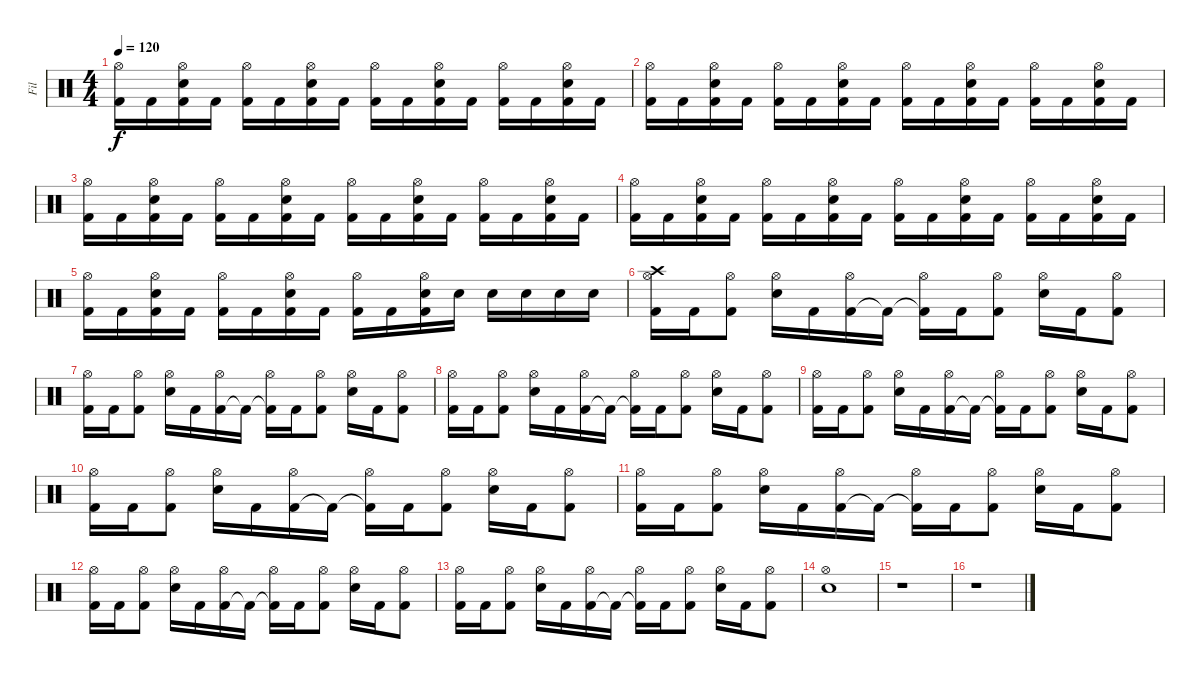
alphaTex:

\track ("Fil" "Fil") {instrument percussion}
\staff {score}
\articulation defaults
\ts (4 4)
\tempo 120
\clef neutral
\ks c
("Kick (hit) 2" "Hi-Hat (open)").16{dy f} "Kick (hit) 2".16 ("Kick (hit) 2" "Snare (hit) 2" "Hi-Hat (open)").16 "Kick (hit) 2".16 ("Kick (hit) 2" "Hi-Hat (open)").16 "Kick (hit) 2".16 ("Kick (hit) 2" "Snare (hit) 2" "Hi-Hat (open)").16 "Kick (hit) 2".16 ("Kick (hit) 2" "Hi-Hat (open)").16 "Kick (hit) 2".16 ("Kick (hit) 2" "Snare (hit) 2" "Hi-Hat (open)").16 "Kick (hit) 2".16 ("Kick (hit) 2" "Hi-Hat (open)").16 "Kick (hit) 2".16 ("Kick (hit) 2" "Snare (hit) 2" "Hi-Hat (open)").16 "Kick (hit) 2".16 |
("Kick (hit) 2" "Hi-Hat (open)").16 "Kick (hit) 2".16 ("Kick (hit) 2" "Snare (hit) 2" "Hi-Hat (open)").16 "Kick (hit) 2".16 ("Kick (hit) 2" "Hi-Hat (open)").16 "Kick (hit) 2".16 ("Kick (hit) 2" "Snare (hit) 2" "Hi-Hat (open)").16 "Kick (hit) 2".16 ("Kick (hit) 2" "Hi-Hat (open)").16 "Kick (hit) 2".16 ("Kick (hit) 2" "Snare (hit) 2" "Hi-Hat (open)").16 "Kick (hit) 2".16 ("Kick (hit) 2" "Hi-Hat (open)").16 "Kick (hit) 2".16 ("Kick (hit) 2" "Snare (hit) 2" "Hi-Hat (open)").16 "Kick (hit) 2".16 |
("Kick (hit) 2" "Hi-Hat (open)").16 "Kick (hit) 2".16 ("Kick (hit) 2" "Snare (hit) 2" "Hi-Hat (open)").16 "Kick (hit) 2".16 ("Kick (hit) 2" "Hi-Hat (open)").16 "Kick (hit) 2".16 ("Kick (hit) 2" "Snare (hit) 2" "Hi-Hat (open)").16 "Kick (hit) 2".16 ("Kick (hit) 2" "Hi-Hat (open)").16 "Kick (hit) 2".16 ("Kick (hit) 2" "Snare (hit) 2" "Hi-Hat (open)").16 "Kick (hit) 2".16 ("Kick (hit) 2" "Hi-Hat (open)").16 "Kick (hit) 2".16 ("Kick (hit) 2" "Snare (hit) 2" "Hi-Hat (open)").16 "Kick (hit) 2".16 |
("Kick (hit) 2" "Hi-Hat (open)").16 "Kick (hit) 2".16 ("Kick (hit) 2" "Snare (hit) 2" "Hi-Hat (open)").16 "Kick (hit) 2".16 ("Kick (hit) 2" "Hi-Hat (open)").16 "Kick (hit) 2".16 ("Kick (hit) 2" "Snare (hit) 2" "Hi-Hat (open)").16 "Kick (hit) 2".16 ("Kick (hit) 2" "Hi-Hat (open)").16 "Kick (hit) 2".16 ("Kick (hit) 2" "Snare (hit) 2" "Hi-Hat (open)").16 "Kick (hit) 2".16 ("Kick (hit) 2" "Hi-Hat (open)").16 "Kick (hit) 2".16 ("Kick (hit) 2" "Snare (hit) 2" "Hi-Hat (open)").16 "Kick (hit) 2".16 |
("Kick (hit) 2" "Hi-Hat (open)").16 "Kick (hit) 2".16 ("Kick (hit) 2" "Snare (hit) 2" "Hi-Hat (open)").16 "Kick (hit) 2".16 ("Kick (hit) 2" "Hi-Hat (open)").16 "Kick (hit) 2".16 ("Kick (hit) 2" "Snare (hit) 2" "Hi-Hat (open)").16 "Kick (hit) 2".16 ("Kick (hit) 2" "Hi-Hat (open)").16 "Kick (hit) 2".16 ("Kick (hit) 2" "Snare (hit) 2" "Hi-Hat (open)").16 "Snare (hit) 2".16 "Snare (hit) 2".16 "Snare (hit) 2".16 "Snare (hit) 2".16 "Snare (hit) 2".16 |
("Kick (hit) 2" "Hi-Hat (open)" "Crash high (hit)").16 "Kick (hit) 2".16 ("Kick (hit) 2" "Hi-Hat (open)").8 ("Snare (hit) 2" "Hi-Hat (open)").16 "Kick (hit) 2".16 ("Kick (hit) 2" "Hi-Hat (open)").16 "Kick (hit) 2"{t}.16 ("Kick (hit) 2"{t} "Hi-Hat (open)").16 "Kick (hit) 2".16 ("Kick (hit) 2" "Hi-Hat (open)").8 ("Snare (hit) 2" "Hi-Hat (open)").16 "Kick (hit) 2".16 ("Kick (hit) 2" "Hi-Hat (open)").8 |
("Kick (hit) 2" "Hi-Hat (open)").16 "Kick (hit) 2".16 ("Kick (hit) 2" "Hi-Hat (open)").8 ("Snare (hit) 2" "Hi-Hat (open)").16 "Kick (hit) 2".16 ("Kick (hit) 2" "Hi-Hat (open)").16 "Kick (hit) 2"{t}.16 ("Kick (hit) 2"{t} "Hi-Hat (open)").16 "Kick (hit) 2".16 ("Kick (hit) 2" "Hi-Hat (open)").8 ("Snare (hit) 2" "Hi-Hat (open)").16 "Kick (hit) 2".16 ("Kick (hit) 2" "Hi-Hat (open)").8 |
("Kick (hit) 2" "Hi-Hat (open)").16 "Kick (hit) 2".16 ("Kick (hit) 2" "Hi-Hat (open)").8 ("Snare (hit) 2" "Hi-Hat (open)").16 "Kick (hit) 2".16 ("Kick (hit) 2" "Hi-Hat (open)").16 "Kick (hit) 2"{t}.16 ("Kick (hit) 2"{t} "Hi-Hat (open)").16 "Kick (hit) 2".16 ("Kick (hit) 2" "Hi-Hat (open)").8 ("Snare (hit) 2" "Hi-Hat (open)").16 "Kick (hit) 2".16 ("Kick (hit) 2" "Hi-Hat (open)").8 |
("Kick (hit) 2" "Hi-Hat (open)").16 "Kick (hit) 2".16 ("Kick (hit) 2" "Hi-Hat (open)").8 ("Snare (hit) 2" "Hi-Hat (open)").16 "Kick (hit) 2".16 ("Kick (hit) 2" "Hi-Hat (open)").16 "Kick (hit) 2"{t}.16 ("Kick (hit) 2"{t} "Hi-Hat (open)").16 "Kick (hit) 2".16 ("Kick (hit) 2" "Hi-Hat (open)").8 ("Snare (hit) 2" "Hi-Hat (open)").16 "Kick (hit) 2".16 ("Kick (hit) 2" "Hi-Hat (open)").8 |
("Kick (hit) 2" "Hi-Hat (open)").16 "Kick (hit) 2".16 ("Kick (hit) 2" "Hi-Hat (open)").8 ("Snare (hit) 2" "Hi-Hat (open)").16 "Kick (hit) 2".16 ("Kick (hit) 2" "Hi-Hat (open)").16 "Kick (hit) 2"{t}.16 ("Kick (hit) 2"{t} "Hi-Hat (open)").16 "Kick (hit) 2".16 ("Kick (hit) 2" "Hi-Hat (open)").8 ("Snare (hit) 2" "Hi-Hat (open)").16 "Kick (hit) 2".16 ("Kick (hit) 2" "Hi-Hat (open)").8 |
("Kick (hit) 2" "Hi-Hat (open)").16 "Kick (hit) 2".16 ("Kick (hit) 2" "Hi-Hat (open)").8 ("Snare (hit) 2" "Hi-Hat (open)").16 "Kick (hit) 2".16 ("Kick (hit) 2" "Hi-Hat (open)").16 "Kick (hit) 2"{t}.16 ("Kick (hit) 2"{t} "Hi-Hat (open)").16 "Kick (hit) 2".16 ("Kick (hit) 2" "Hi-Hat (open)").8 ("Snare (hit) 2" "Hi-Hat (open)").16 "Kick (hit) 2".16 ("Kick (hit) 2" "Hi-Hat (open)").8 |
("Kick (hit) 2" "Hi-Hat (open)").16 "Kick (hit) 2".16 ("Kick (hit) 2" "Hi-Hat (open)").8 ("Snare (hit) 2" "Hi-Hat (open)").16 "Kick (hit) 2".16 ("Kick (hit) 2" "Hi-Hat (open)").16 "Kick (hit) 2"{t}.16 ("Kick (hit) 2"{t} "Hi-Hat (open)").16 "Kick (hit) 2".16 ("Kick (hit) 2" "Hi-Hat (open)").8 ("Snare (hit) 2" "Hi-Hat (open)").16 "Kick (hit) 2".16 ("Kick (hit) 2" "Hi-Hat (open)").8 |
("Kick (hit) 2" "Hi-Hat (open)").16 "Kick (hit) 2".16 ("Kick (hit) 2" "Hi-Hat (open)").8 ("Snare (hit) 2" "Hi-Hat (open)").16 "Kick (hit) 2".16 ("Kick (hit) 2" "Hi-Hat (open)").16 "Kick (hit) 2"{t}.16 ("Kick (hit) 2"{t} "Hi-Hat (open)").16 "Kick (hit) 2".16 ("Kick (hit) 2" "Hi-Hat (open)").8 ("Snare (hit) 2" "Hi-Hat (open)").16 "Kick (hit) 2".16 ("Kick (hit) 2" "Hi-Hat (open)").8 |
("Snare (hit) 2" "Hi-Hat (open)").1 |
r.1 |
r.1
